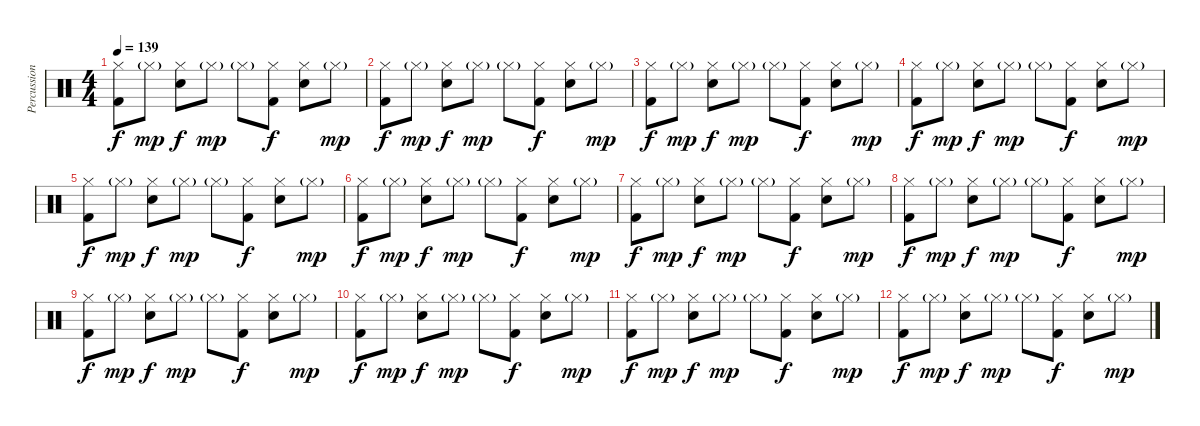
\track ("Percussion" "Percussion") {instrument percussion}
\staff {score}
\articulation defaults
\ts (4 4)
\tempo 139
\clef neutral
\ks c
("Hi-Hat (closed)" "Kick (hit) 2").8{dy f} "Hi-Hat (closed)"{g}.8{dy mp} ("Hi-Hat (closed)" "Snare (hit) 2").8{dy f} "Hi-Hat (closed)"{g}.8{dy mp} "Hi-Hat (closed)"{g}.8 ("Hi-Hat (closed)" "Kick (hit) 2").8{dy f} ("Hi-Hat (closed)" "Snare (hit) 2").8 "Hi-Hat (closed)"{g}.8{dy mp} |
("Hi-Hat (closed)" "Kick (hit) 2").8{dy f} "Hi-Hat (closed)"{g}.8{dy mp} ("Hi-Hat (closed)" "Snare (hit) 2").8{dy f} "Hi-Hat (closed)"{g}.8{dy mp} "Hi-Hat (closed)"{g}.8 ("Hi-Hat (closed)" "Kick (hit) 2").8{dy f} ("Hi-Hat (closed)" "Snare (hit) 2").8 "Hi-Hat (closed)"{g}.8{dy mp} |
("Hi-Hat (closed)" "Kick (hit) 2").8{dy f} "Hi-Hat (closed)"{g}.8{dy mp} ("Hi-Hat (closed)" "Snare (hit) 2").8{dy f} "Hi-Hat (closed)"{g}.8{dy mp} "Hi-Hat (closed)"{g}.8 ("Hi-Hat (closed)" "Kick (hit) 2").8{dy f} ("Hi-Hat (closed)" "Snare (hit) 2").8 "Hi-Hat (closed)"{g}.8{dy mp} |
("Hi-Hat (closed)" "Kick (hit) 2").8{dy f} "Hi-Hat (closed)"{g}.8{dy mp} ("Hi-Hat (closed)" "Snare (hit) 2").8{dy f} "Hi-Hat (closed)"{g}.8{dy mp} "Hi-Hat (closed)"{g}.8 ("Hi-Hat (closed)" "Kick (hit) 2").8{dy f} ("Hi-Hat (closed)" "Snare (hit) 2").8 "Hi-Hat (closed)"{g}.8{dy mp} |
("Hi-Hat (closed)" "Kick (hit) 2").8{dy f} "Hi-Hat (closed)"{g}.8{dy mp} ("Hi-Hat (closed)" "Snare (hit) 2").8{dy f} "Hi-Hat (closed)"{g}.8{dy mp} "Hi-Hat (closed)"{g}.8 ("Hi-Hat (closed)" "Kick (hit) 2").8{dy f} ("Hi-Hat (closed)" "Snare (hit) 2").8 "Hi-Hat (closed)"{g}.8{dy mp} |
("Hi-Hat (closed)" "Kick (hit) 2").8{dy f} "Hi-Hat (closed)"{g}.8{dy mp} ("Hi-Hat (closed)" "Snare (hit) 2").8{dy f} "Hi-Hat (closed)"{g}.8{dy mp} "Hi-Hat (closed)"{g}.8 ("Hi-Hat (closed)" "Kick (hit) 2").8{dy f} ("Hi-Hat (closed)" "Snare (hit) 2").8 "Hi-Hat (closed)"{g}.8{dy mp} |
("Hi-Hat (closed)" "Kick (hit) 2").8{dy f} "Hi-Hat (closed)"{g}.8{dy mp} ("Hi-Hat (closed)" "Snare (hit) 2").8{dy f} "Hi-Hat (closed)"{g}.8{dy mp} "Hi-Hat (closed)"{g}.8 ("Hi-Hat (closed)" "Kick (hit) 2").8{dy f} ("Hi-Hat (closed)" "Snare (hit) 2").8 "Hi-Hat (closed)"{g}.8{dy mp} |
("Hi-Hat (closed)" "Kick (hit) 2").8{dy f} "Hi-Hat (closed)"{g}.8{dy mp} ("Hi-Hat (closed)" "Snare (hit) 2").8{dy f} "Hi-Hat (closed)"{g}.8{dy mp} "Hi-Hat (closed)"{g}.8 ("Hi-Hat (closed)" "Kick (hit) 2").8{dy f} ("Hi-Hat (closed)" "Snare (hit) 2").8 "Hi-Hat (closed)"{g}.8{dy mp} |
("Hi-Hat (closed)" "Kick (hit) 2").8{dy f} "Hi-Hat (closed)"{g}.8{dy mp} ("Hi-Hat (closed)" "Snare (hit) 2").8{dy f} "Hi-Hat (closed)"{g}.8{dy mp} "Hi-Hat (closed)"{g}.8 ("Hi-Hat (closed)" "Kick (hit) 2").8{dy f} ("Hi-Hat (closed)" "Snare (hit) 2").8 "Hi-Hat (closed)"{g}.8{dy mp} |
("Hi-Hat (closed)" "Kick (hit) 2").8{dy f} "Hi-Hat (closed)"{g}.8{dy mp} ("Hi-Hat (closed)" "Snare (hit) 2").8{dy f} "Hi-Hat (closed)"{g}.8{dy mp} "Hi-Hat (closed)"{g}.8 ("Hi-Hat (closed)" "Kick (hit) 2").8{dy f} ("Hi-Hat (closed)" "Snare (hit) 2").8 "Hi-Hat (closed)"{g}.8{dy mp} |
("Hi-Hat (closed)" "Kick (hit) 2").8{dy f} "Hi-Hat (closed)"{g}.8{dy mp} ("Hi-Hat (closed)" "Snare (hit) 2").8{dy f} "Hi-Hat (closed)"{g}.8{dy mp} "Hi-Hat (closed)"{g}.8 ("Hi-Hat (closed)" "Kick (hit) 2").8{dy f} ("Hi-Hat (closed)" "Snare (hit) 2").8 "Hi-Hat (closed)"{g}.8{dy mp} |
("Hi-Hat (closed)" "Kick (hit) 2").8{dy f} "Hi-Hat (closed)"{g}.8{dy mp} ("Hi-Hat (closed)" "Snare (hit) 2").8{dy f} "Hi-Hat (closed)"{g}.8{dy mp} "Hi-Hat (closed)"{g}.8 ("Hi-Hat (closed)" "Kick (hit) 2").8{dy f} ("Hi-Hat (closed)" "Snare (hit) 2").8 "Hi-Hat (closed)"{g}.8{dy mp}
